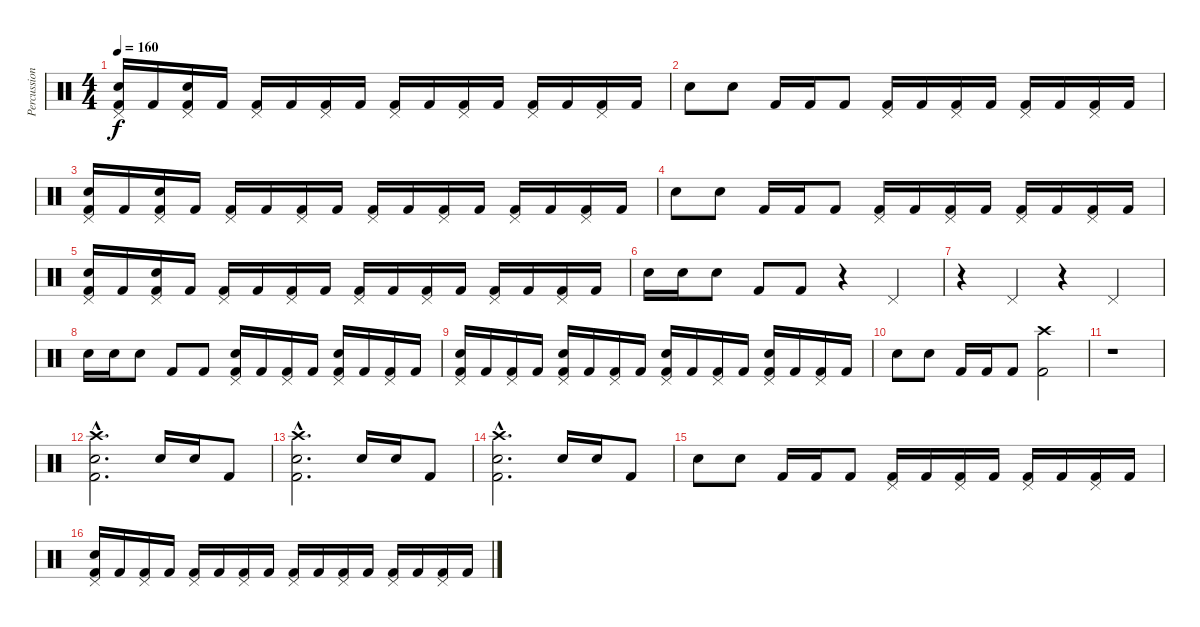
\track ("Percussion" "Percussion") {instrument percussion}
\staff {score}
\articulation defaults
\ts (4 4)
\tempo 160
\clef neutral
\ks c
("Pedal Hi-Hat (hit)" "Snare (hit) 2" "Kick (hit) 2").16{dy f} "Kick (hit) 2".16 ("Pedal Hi-Hat (hit)" "Snare (hit) 2" "Kick (hit) 2").16 "Kick (hit) 2".16 ("Pedal Hi-Hat (hit)" "Kick (hit) 2").16 "Kick (hit) 2".16 ("Pedal Hi-Hat (hit)" "Kick (hit) 2").16 "Kick (hit) 2".16 ("Pedal Hi-Hat (hit)" "Kick (hit) 2").16 "Kick (hit) 2".16 ("Pedal Hi-Hat (hit)" "Kick (hit) 2").16 "Kick (hit) 2".16 ("Pedal Hi-Hat (hit)" "Kick (hit) 2").16 "Kick (hit) 2".16 ("Pedal Hi-Hat (hit)" "Kick (hit) 2").16 "Kick (hit) 2".16 |
"Snare (hit) 2".8 "Snare (hit) 2".8 "Kick (hit) 2".16 "Kick (hit) 2".16 "Kick (hit) 2".8 ("Pedal Hi-Hat (hit)" "Kick (hit) 2").16 "Kick (hit) 2".16 ("Pedal Hi-Hat (hit)" "Kick (hit) 2").16 "Kick (hit) 2".16 ("Pedal Hi-Hat (hit)" "Kick (hit) 2").16 "Kick (hit) 2".16 ("Pedal Hi-Hat (hit)" "Kick (hit) 2").16 "Kick (hit) 2".16 |
("Pedal Hi-Hat (hit)" "Snare (hit) 2" "Kick (hit) 2").16 "Kick (hit) 2".16 ("Pedal Hi-Hat (hit)" "Snare (hit) 2" "Kick (hit) 2").16 "Kick (hit) 2".16 ("Pedal Hi-Hat (hit)" "Kick (hit) 2").16 "Kick (hit) 2".16 ("Pedal Hi-Hat (hit)" "Kick (hit) 2").16 "Kick (hit) 2".16 ("Pedal Hi-Hat (hit)" "Kick (hit) 2").16 "Kick (hit) 2".16 ("Pedal Hi-Hat (hit)" "Kick (hit) 2").16 "Kick (hit) 2".16 ("Pedal Hi-Hat (hit)" "Kick (hit) 2").16 "Kick (hit) 2".16 ("Pedal Hi-Hat (hit)" "Kick (hit) 2").16 "Kick (hit) 2".16 |
"Snare (hit) 2".8 "Snare (hit) 2".8 "Kick (hit) 2".16 "Kick (hit) 2".16 "Kick (hit) 2".8 ("Pedal Hi-Hat (hit)" "Kick (hit) 2").16 "Kick (hit) 2".16 ("Pedal Hi-Hat (hit)" "Kick (hit) 2").16 "Kick (hit) 2".16 ("Pedal Hi-Hat (hit)" "Kick (hit) 2").16 "Kick (hit) 2".16 ("Pedal Hi-Hat (hit)" "Kick (hit) 2").16 "Kick (hit) 2".16 |
("Pedal Hi-Hat (hit)" "Snare (hit) 2" "Kick (hit) 2").16 "Kick (hit) 2".16 ("Pedal Hi-Hat (hit)" "Snare (hit) 2" "Kick (hit) 2").16 "Kick (hit) 2".16 ("Pedal Hi-Hat (hit)" "Kick (hit) 2").16 "Kick (hit) 2".16 ("Pedal Hi-Hat (hit)" "Kick (hit) 2").16 "Kick (hit) 2".16 ("Pedal Hi-Hat (hit)" "Kick (hit) 2").16 "Kick (hit) 2".16 ("Pedal Hi-Hat (hit)" "Kick (hit) 2").16 "Kick (hit) 2".16 ("Pedal Hi-Hat (hit)" "Kick (hit) 2").16 "Kick (hit) 2".16 ("Pedal Hi-Hat (hit)" "Kick (hit) 2").16 "Kick (hit) 2".16 |
"Snare (hit) 2".16 "Snare (hit) 2".16 "Snare (hit) 2".8 "Kick (hit) 2".8 "Kick (hit) 2".8 r.4 "Pedal Hi-Hat (hit)".4 |
r.4 "Pedal Hi-Hat (hit)".4 r.4 "Pedal Hi-Hat (hit)".4 |
"Snare (hit) 2".16 "Snare (hit) 2".16 "Snare (hit) 2".8 "Kick (hit) 2".8 "Kick (hit) 2".8 ("Pedal Hi-Hat (hit)" "Snare (hit) 2" "Kick (hit) 2").16 "Kick (hit) 2".16 ("Pedal Hi-Hat (hit)" "Kick (hit) 2").16 "Kick (hit) 2".16 ("Pedal Hi-Hat (hit)" "Snare (hit) 2" "Kick (hit) 2").16 "Kick (hit) 2".16 ("Pedal Hi-Hat (hit)" "Kick (hit) 2").16 "Kick (hit) 2".16 |
("Pedal Hi-Hat (hit)" "Snare (hit) 2" "Kick (hit) 2").16 "Kick (hit) 2".16 ("Pedal Hi-Hat (hit)" "Kick (hit) 2").16 "Kick (hit) 2".16 ("Pedal Hi-Hat (hit)" "Snare (hit) 2" "Kick (hit) 2").16 "Kick (hit) 2".16 ("Pedal Hi-Hat (hit)" "Kick (hit) 2").16 "Kick (hit) 2".16 ("Pedal Hi-Hat (hit)" "Snare (hit) 2" "Kick (hit) 2").16 "Kick (hit) 2".16 ("Pedal Hi-Hat (hit)" "Kick (hit) 2").16 "Kick (hit) 2".16 ("Pedal Hi-Hat (hit)" "Snare (hit) 2" "Kick (hit) 2").16 "Kick (hit) 2".16 ("Pedal Hi-Hat (hit)" "Kick (hit) 2").16 "Kick (hit) 2".16 |
"Snare (hit) 2".8 "Snare (hit) 2".8 "Kick (hit) 2".16 "Kick (hit) 2".16 "Kick (hit) 2".8 ("Crash high (hit)" "Kick (hit) 2").2 |
r.1 |
("Crash high (hit)"{hac} "Snare (hit) 2"{hac} "Kick (hit) 2"{hac}).2{d} "Snare (hit) 2".16 "Snare (hit) 2".16 "Kick (hit) 2".8 |
("Crash high (hit)"{hac} "Snare (hit) 2"{hac} "Kick (hit) 2"{hac}).2{d} "Snare (hit) 2".16 "Snare (hit) 2".16 "Kick (hit) 2".8 |
("Crash high (hit)"{hac} "Snare (hit) 2"{hac} "Kick (hit) 2"{hac}).2{d} "Snare (hit) 2".16 "Snare (hit) 2".16 "Kick (hit) 2".8 |
"Snare (hit) 2".8 "Snare (hit) 2".8 "Kick (hit) 2".16 "Kick (hit) 2".16 "Kick (hit) 2".8 ("Pedal Hi-Hat (hit)" "Kick (hit) 2").16 "Kick (hit) 2".16 ("Pedal Hi-Hat (hit)" "Kick (hit) 2").16 "Kick (hit) 2".16 ("Pedal Hi-Hat (hit)" "Kick (hit) 2").16 "Kick (hit) 2".16 ("Pedal Hi-Hat (hit)" "Kick (hit) 2").16 "Kick (hit) 2".16 |
("Pedal Hi-Hat (hit)" "Snare (hit) 2" "Kick (hit) 2").16 "Kick (hit) 2".16 ("Pedal Hi-Hat (hit)" "Kick (hit) 2").16 "Kick (hit) 2".16 ("Pedal Hi-Hat (hit)" "Kick (hit) 2").16 "Kick (hit) 2".16 ("Pedal Hi-Hat (hit)" "Kick (hit) 2").16 "Kick (hit) 2".16 ("Pedal Hi-Hat (hit)" "Kick (hit) 2").16 "Kick (hit) 2".16 ("Pedal Hi-Hat (hit)" "Kick (hit) 2").16 "Kick (hit) 2".16 ("Pedal Hi-Hat (hit)" "Kick (hit) 2").16 "Kick (hit) 2".16 ("Pedal Hi-Hat (hit)" "Kick (hit) 2").16 "Kick (hit) 2".16
